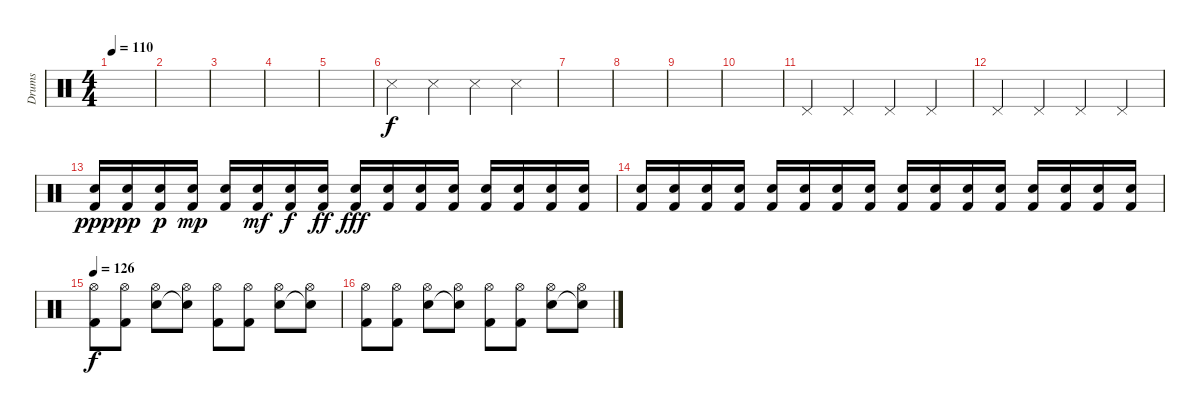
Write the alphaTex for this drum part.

\track ("Drums" "Drums") {instrument percussion}
\staff {score}
\articulation defaults
\ts (4 4)
\tempo 110
\clef neutral
\ks c
|
|
|
|
|
"Snare (side stick) 3".4 "Snare (side stick) 3".4 "Snare (side stick) 3".4 "Snare (side stick) 3".4 |
|
|
|
|
"Pedal Hi-Hat (hit)".4 "Pedal Hi-Hat (hit)".4 "Pedal Hi-Hat (hit)".4 "Pedal Hi-Hat (hit)".4 |
"Pedal Hi-Hat (hit)".4 "Pedal Hi-Hat (hit)".4 "Pedal Hi-Hat (hit)".4 "Pedal Hi-Hat (hit)".4 |
("Snare (hit) 2" "Kick (hit) 2").16{dy ppp} ("Snare (hit) 2" "Kick (hit) 2").16{dy pp} ("Snare (hit) 2" "Kick (hit) 2").16{dy p} ("Snare (hit) 2" "Kick (hit) 2").16{dy mp} ("Snare (hit) 2" "Kick (hit) 2").16 ("Snare (hit) 2" "Kick (hit) 2").16{dy mf} ("Snare (hit) 2" "Kick (hit) 2").16{dy f} ("Snare (hit) 2" "Kick (hit) 2").16{dy ff} ("Snare (hit) 2" "Kick (hit) 2").16{dy fff} ("Snare (hit) 2" "Kick (hit) 2").16 ("Snare (hit) 2" "Kick (hit) 2").16 ("Snare (hit) 2" "Kick (hit) 2").16 ("Snare (hit) 2" "Kick (hit) 2").16 ("Snare (hit) 2" "Kick (hit) 2").16 ("Snare (hit) 2" "Kick (hit) 2").16 ("Snare (hit) 2" "Kick (hit) 2").16 |
("Snare (hit) 2" "Kick (hit) 2").16 ("Snare (hit) 2" "Kick (hit) 2").16 ("Snare (hit) 2" "Kick (hit) 2").16 ("Snare (hit) 2" "Kick (hit) 2").16 ("Snare (hit) 2" "Kick (hit) 2").16 ("Snare (hit) 2" "Kick (hit) 2").16 ("Snare (hit) 2" "Kick (hit) 2").16 ("Snare (hit) 2" "Kick (hit) 2").16 ("Snare (hit) 2" "Kick (hit) 2").16 ("Snare (hit) 2" "Kick (hit) 2").16 ("Snare (hit) 2" "Kick (hit) 2").16 ("Snare (hit) 2" "Kick (hit) 2").16 ("Snare (hit) 2" "Kick (hit) 2").16 ("Snare (hit) 2" "Kick (hit) 2").16 ("Snare (hit) 2" "Kick (hit) 2").16 ("Snare (hit) 2" "Kick (hit) 2").16 |
\tempo 126
("Hi-Hat (open)" "Kick (hit) 2").8{dy f} ("Hi-Hat (open)" "Kick (hit) 2").8 ("Hi-Hat (open)" "Snare (hit) 2").8 ("Hi-Hat (open)" "Snare (hit) 2"{t}).8 ("Hi-Hat (open)" "Kick (hit) 2").8 ("Hi-Hat (open)" "Kick (hit) 2").8 ("Hi-Hat (open)" "Snare (hit) 2").8 ("Hi-Hat (open)" "Snare (hit) 2"{t}).8 |
("Hi-Hat (open)" "Kick (hit) 2").8 ("Hi-Hat (open)" "Kick (hit) 2").8 ("Hi-Hat (open)" "Snare (hit) 2").8 ("Hi-Hat (open)" "Snare (hit) 2"{t}).8 ("Hi-Hat (open)" "Kick (hit) 2").8 ("Hi-Hat (open)" "Kick (hit) 2").8 ("Hi-Hat (open)" "Snare (hit) 2").8 ("Hi-Hat (open)" "Snare (hit) 2"{t}).8
